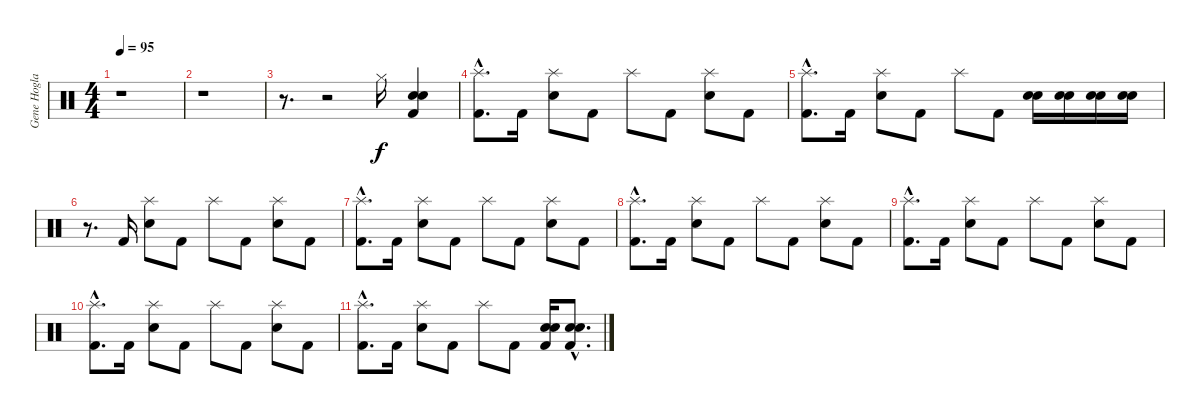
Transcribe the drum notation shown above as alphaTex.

\track ("Gene Hoglan" "Gene Hogla") {instrument percussion}
\staff {score}
\articulation defaults
\ts (4 4)
\tempo 95
\clef neutral
\ks c
r.1{dy f} |
r.1 |
r.8{d} r.2 "Hi-Hat (closed)".16 ("Electric Snare (hit)" "Snare (hit) 2" "Kick (hit) 2").4 |
("Splash (hit)"{hac} "Kick (hit) 2"{hac}).8{d} "Kick (hit) 2".16 ("Splash (hit)" "Electric Snare (hit)").8 "Kick (hit) 2".8 "Splash (hit)".8 "Kick (hit) 2".8 ("Splash (hit)" "Electric Snare (hit)").8 "Kick (hit) 2".8 |
("Splash (hit)"{hac} "Kick (hit) 2"{hac}).8{d} "Kick (hit) 2".16 ("Splash (hit)" "Electric Snare (hit)").8 "Kick (hit) 2".8 "Splash (hit)".8 "Kick (hit) 2".8 ("Snare (hit) 2" "Electric Snare (hit)").16 ("Snare (hit) 2" "Electric Snare (hit)").16 ("Snare (hit) 2" "Electric Snare (hit)").16 ("Snare (hit) 2" "Electric Snare (hit)").16 |
r.8{d} "Kick (hit) 2".16 ("Splash (hit)" "Electric Snare (hit)").8 "Kick (hit) 2".8 "Splash (hit)".8 "Kick (hit) 2".8 ("Splash (hit)" "Electric Snare (hit)").8 "Kick (hit) 2".8 |
("Splash (hit)"{hac} "Kick (hit) 2"{hac}).8{d} "Kick (hit) 2".16 ("Splash (hit)" "Electric Snare (hit)").8 "Kick (hit) 2".8 "Splash (hit)".8 "Kick (hit) 2".8 ("Splash (hit)" "Electric Snare (hit)").8 "Kick (hit) 2".8 |
("Splash (hit)"{hac} "Kick (hit) 2"{hac}).8{d} "Kick (hit) 2".16 ("Splash (hit)" "Electric Snare (hit)").8 "Kick (hit) 2".8 "Splash (hit)".8 "Kick (hit) 2".8 ("Splash (hit)" "Electric Snare (hit)").8 "Kick (hit) 2".8 |
("Splash (hit)"{hac} "Kick (hit) 2"{hac}).8{d} "Kick (hit) 2".16 ("Splash (hit)" "Electric Snare (hit)").8 "Kick (hit) 2".8 "Splash (hit)".8 "Kick (hit) 2".8 ("Splash (hit)" "Electric Snare (hit)").8 "Kick (hit) 2".8 |
("Splash (hit)"{hac} "Kick (hit) 2"{hac}).8{d} "Kick (hit) 2".16 ("Splash (hit)" "Electric Snare (hit)").8 "Kick (hit) 2".8 "Splash (hit)".8 "Kick (hit) 2".8 ("Splash (hit)" "Electric Snare (hit)").8 "Kick (hit) 2".8 |
("Splash (hit)"{hac} "Kick (hit) 2"{hac}).8{d} "Kick (hit) 2".16 ("Splash (hit)" "Electric Snare (hit)").8 "Kick (hit) 2".8 "Splash (hit)".8 "Kick (hit) 2".8 ("Electric Snare (hit)" "Snare (hit) 2" "Kick (hit) 2").16 ("Electric Snare (hit)"{hac} "Snare (hit) 2"{hac} "Kick (hit) 2"{hac}).8{d}
